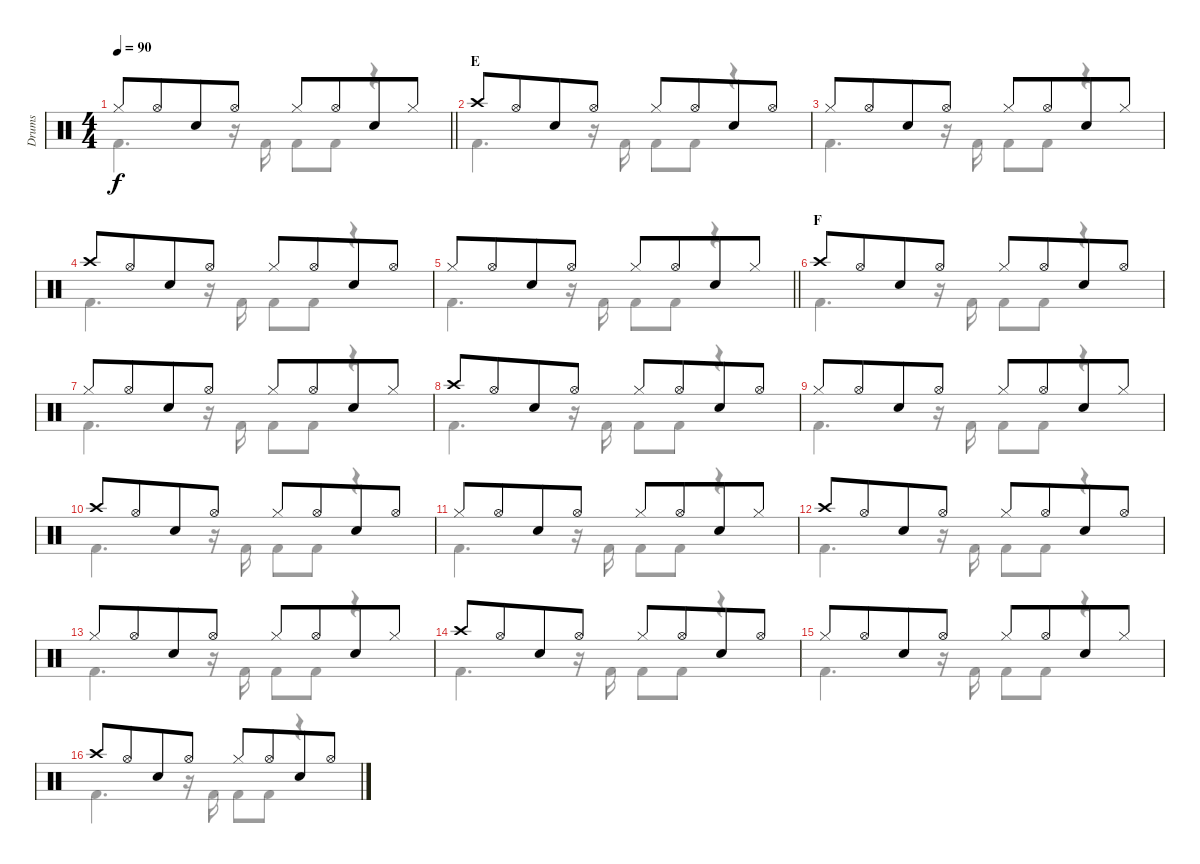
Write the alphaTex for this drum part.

\track ("Drums" "Drums") {instrument percussion}
\staff {score}
\articulation defaults
\voice
\ts (4 4)
\tempo 90
\clef neutral
\barLineRight lightlight
\ks c "Hi-Hat (closed)".8{dy f} "Hi-Hat (open)".8{beam merge} "Snare (hit) 2".8 "Hi-Hat (open)".8 "Hi-Hat (closed)".8 "Hi-Hat (open)".8{beam merge} "Snare (hit) 2".8 "Hi-Hat (closed)".8
|
\section ("" "E")
"Crash high (hit)".8 "Hi-Hat (open)".8{beam merge} "Snare (hit) 2".8 "Hi-Hat (open)".8 "Hi-Hat (closed)".8 "Hi-Hat (open)".8{beam merge} "Snare (hit) 2".8 "Hi-Hat (open)".8 |
"Hi-Hat (closed)".8 "Hi-Hat (open)".8{beam merge} "Snare (hit) 2".8 "Hi-Hat (open)".8 "Hi-Hat (closed)".8 "Hi-Hat (open)".8{beam merge} "Snare (hit) 2".8 "Hi-Hat (closed)".8 |
"Crash high (hit)".8 "Hi-Hat (open)".8{beam merge} "Snare (hit) 2".8 "Hi-Hat (open)".8 "Hi-Hat (closed)".8 "Hi-Hat (open)".8{beam merge} "Snare (hit) 2".8 "Hi-Hat (open)".8 |
\barLineRight lightlight "Hi-Hat (closed)".8 "Hi-Hat (open)".8{beam merge} "Snare (hit) 2".8 "Hi-Hat (open)".8 "Hi-Hat (closed)".8 "Hi-Hat (open)".8{beam merge} "Snare (hit) 2".8 "Hi-Hat (closed)".8
|
\section ("" "F")
"Crash high (hit)".8 "Hi-Hat (open)".8{beam merge} "Snare (hit) 2".8 "Hi-Hat (open)".8 "Hi-Hat (closed)".8 "Hi-Hat (open)".8{beam merge} "Snare (hit) 2".8 "Hi-Hat (open)".8 |
"Hi-Hat (closed)".8 "Hi-Hat (open)".8{beam merge} "Snare (hit) 2".8 "Hi-Hat (open)".8 "Hi-Hat (closed)".8 "Hi-Hat (open)".8{beam merge} "Snare (hit) 2".8 "Hi-Hat (closed)".8 |
"Crash high (hit)".8 "Hi-Hat (open)".8{beam merge} "Snare (hit) 2".8 "Hi-Hat (open)".8 "Hi-Hat (closed)".8 "Hi-Hat (open)".8{beam merge} "Snare (hit) 2".8 "Hi-Hat (open)".8 |
"Hi-Hat (closed)".8 "Hi-Hat (open)".8{beam merge} "Snare (hit) 2".8 "Hi-Hat (open)".8 "Hi-Hat (closed)".8 "Hi-Hat (open)".8{beam merge} "Snare (hit) 2".8 "Hi-Hat (closed)".8 |
"Crash high (hit)".8 "Hi-Hat (open)".8{beam merge} "Snare (hit) 2".8 "Hi-Hat (open)".8 "Hi-Hat (closed)".8 "Hi-Hat (open)".8{beam merge} "Snare (hit) 2".8 "Hi-Hat (open)".8 |
"Hi-Hat (closed)".8 "Hi-Hat (open)".8{beam merge} "Snare (hit) 2".8 "Hi-Hat (open)".8 "Hi-Hat (closed)".8 "Hi-Hat (open)".8{beam merge} "Snare (hit) 2".8 "Hi-Hat (closed)".8 |
"Crash high (hit)".8 "Hi-Hat (open)".8{beam merge} "Snare (hit) 2".8 "Hi-Hat (open)".8 "Hi-Hat (closed)".8 "Hi-Hat (open)".8{beam merge} "Snare (hit) 2".8 "Hi-Hat (open)".8 |
"Hi-Hat (closed)".8 "Hi-Hat (open)".8{beam merge} "Snare (hit) 2".8 "Hi-Hat (open)".8 "Hi-Hat (closed)".8 "Hi-Hat (open)".8{beam merge} "Snare (hit) 2".8 "Hi-Hat (closed)".8 |
"Crash high (hit)".8 "Hi-Hat (open)".8{beam merge} "Snare (hit) 2".8 "Hi-Hat (open)".8 "Hi-Hat (closed)".8 "Hi-Hat (open)".8{beam merge} "Snare (hit) 2".8 "Hi-Hat (open)".8 |
"Hi-Hat (closed)".8 "Hi-Hat (open)".8{beam merge} "Snare (hit) 2".8 "Hi-Hat (open)".8 "Hi-Hat (closed)".8 "Hi-Hat (open)".8{beam merge} "Snare (hit) 2".8 "Hi-Hat (closed)".8 |
"Crash high (hit)".8 "Hi-Hat (open)".8{beam merge} "Snare (hit) 2".8 "Hi-Hat (open)".8 "Hi-Hat (closed)".8 "Hi-Hat (open)".8{beam merge} "Snare (hit) 2".8 "Hi-Hat (open)".8
\voice
\clef neutral
\ottava regular
\simile none
\barLineRight lightlight
\ks c "Kick (hit) 2".4{d dy f}
r.16 "Kick (hit) 2".16 "Kick (hit) 2".8 "Kick (hit) 2".8 r.4 |
"Kick (hit) 2".4{d} r.16 "Kick (hit) 2".16 "Kick (hit) 2".8 "Kick (hit) 2".8 r.4 |
"Kick (hit) 2".4{d} r.16 "Kick (hit) 2".16 "Kick (hit) 2".8 "Kick (hit) 2".8 r.4 |
"Kick (hit) 2".4{d} r.16 "Kick (hit) 2".16 "Kick (hit) 2".8 "Kick (hit) 2".8 r.4 |
\barLineRight lightlight "Kick (hit) 2".4{d}
r.16 "Kick (hit) 2".16 "Kick (hit) 2".8 "Kick (hit) 2".8 r.4 |
"Kick (hit) 2".4{d} r.16 "Kick (hit) 2".16 "Kick (hit) 2".8 "Kick (hit) 2".8 r.4 |
"Kick (hit) 2".4{d} r.16 "Kick (hit) 2".16 "Kick (hit) 2".8 "Kick (hit) 2".8 r.4 |
"Kick (hit) 2".4{d} r.16 "Kick (hit) 2".16 "Kick (hit) 2".8 "Kick (hit) 2".8 r.4 |
"Kick (hit) 2".4{d} r.16 "Kick (hit) 2".16 "Kick (hit) 2".8 "Kick (hit) 2".8 r.4 |
"Kick (hit) 2".4{d} r.16 "Kick (hit) 2".16 "Kick (hit) 2".8 "Kick (hit) 2".8 r.4 |
"Kick (hit) 2".4{d} r.16 "Kick (hit) 2".16 "Kick (hit) 2".8 "Kick (hit) 2".8 r.4 |
"Kick (hit) 2".4{d} r.16 "Kick (hit) 2".16 "Kick (hit) 2".8 "Kick (hit) 2".8 r.4 |
"Kick (hit) 2".4{d} r.16 "Kick (hit) 2".16 "Kick (hit) 2".8 "Kick (hit) 2".8 r.4 |
"Kick (hit) 2".4{d} r.16 "Kick (hit) 2".16 "Kick (hit) 2".8 "Kick (hit) 2".8 r.4 |
"Kick (hit) 2".4{d} r.16 "Kick (hit) 2".16 "Kick (hit) 2".8 "Kick (hit) 2".8 r.4 |
"Kick (hit) 2".4{d} r.16 "Kick (hit) 2".16 "Kick (hit) 2".8 "Kick (hit) 2".8 r.4
